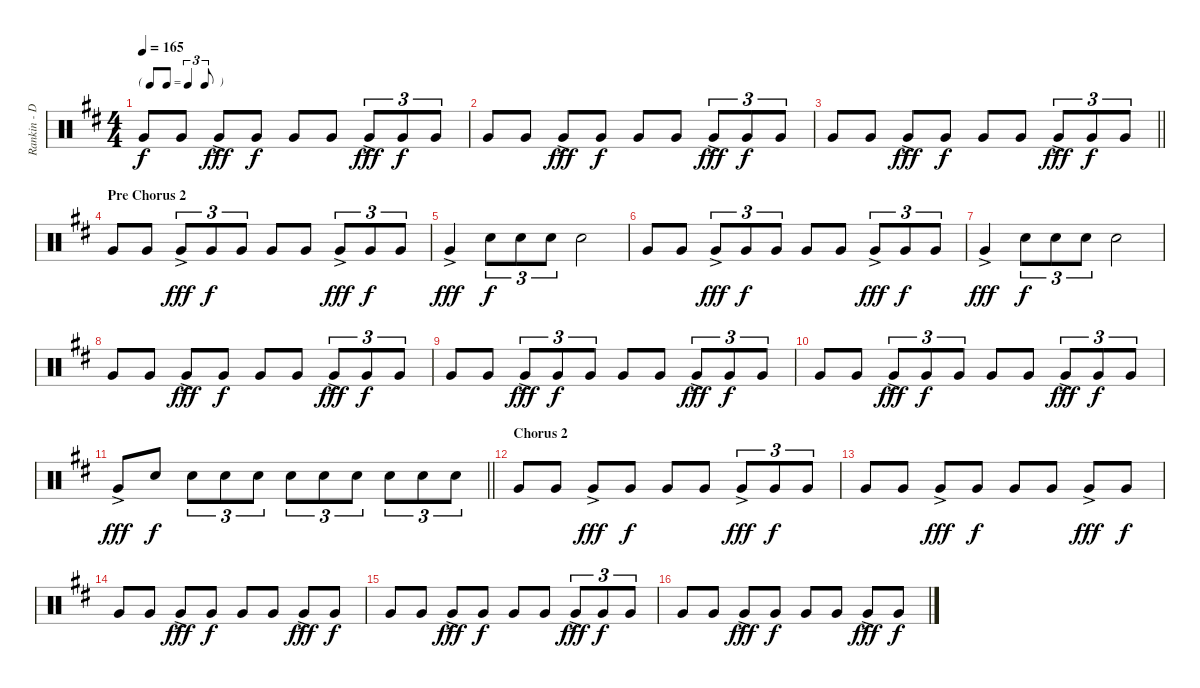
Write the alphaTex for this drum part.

\track ("Rankin - Drums" "Rankin - D") {instrument percussion}
\staff {score}
\articulation defaults
\ts (4 4)
\tf triplet8th
\tempo 165
\clef neutral
\ks d "Very Low Tom (hit)".8{dy f} "Very Low Tom (hit)".8 "Very Low Tom (hit)"{ac}.8{dy fff} "Very Low Tom (hit)".8{dy f} "Very Low Tom (hit)".8 "Very Low Tom (hit)".8 "Very Low Tom (hit)"{ac}.8{tu (3 2) dy fff} "Very Low Tom (hit)".8{tu (3 2) dy f} "Very Low Tom (hit)".8{tu (3 2)}
|
"Very Low Tom (hit)".8 "Very Low Tom (hit)".8 "Very Low Tom (hit)"{ac}.8{dy fff} "Very Low Tom (hit)".8{dy f} "Very Low Tom (hit)".8 "Very Low Tom (hit)".8 "Very Low Tom (hit)"{ac}.8{tu (3 2) dy fff} "Very Low Tom (hit)".8{tu (3 2) dy f} "Very Low Tom (hit)".8{tu (3 2)} |
\barLineRight lightlight "Very Low Tom (hit)".8 "Very Low Tom (hit)".8 "Very Low Tom (hit)"{ac}.8{dy fff} "Very Low Tom (hit)".8{dy f} "Very Low Tom (hit)".8 "Very Low Tom (hit)".8 "Very Low Tom (hit)"{ac}.8{tu (3 2) dy fff} "Very Low Tom (hit)".8{tu (3 2) dy f} "Very Low Tom (hit)".8{tu (3 2)}
|
\section ("" "Pre Chorus 2")
"Very Low Tom (hit)".8 "Very Low Tom (hit)".8 "Very Low Tom (hit)"{ac}.8{tu (3 2) dy fff} "Very Low Tom (hit)".8{tu (3 2) dy f} "Very Low Tom (hit)".8{tu (3 2)} "Very Low Tom (hit)".8 "Very Low Tom (hit)".8 "Very Low Tom (hit)"{ac}.8{tu (3 2) dy fff} "Very Low Tom (hit)".8{tu (3 2) dy f} "Very Low Tom (hit)".8{tu (3 2)} |
"Very Low Tom (hit)"{ac}.4{dy fff} "Electric Snare (hit)".8{tu (3 2) dy f} "Electric Snare (hit)".8{tu (3 2)} "Electric Snare (hit)".8{tu (3 2)} "Electric Snare (hit)".2 |
"Very Low Tom (hit)".8 "Very Low Tom (hit)".8 "Very Low Tom (hit)"{ac}.8{tu (3 2) dy fff} "Very Low Tom (hit)".8{tu (3 2) dy f} "Very Low Tom (hit)".8{tu (3 2)} "Very Low Tom (hit)".8 "Very Low Tom (hit)".8 "Very Low Tom (hit)"{ac}.8{tu (3 2) dy fff} "Very Low Tom (hit)".8{tu (3 2) dy f} "Very Low Tom (hit)".8{tu (3 2)} |
"Very Low Tom (hit)"{ac}.4{dy fff} "Electric Snare (hit)".8{tu (3 2) dy f} "Electric Snare (hit)".8{tu (3 2)} "Electric Snare (hit)".8{tu (3 2)} "Electric Snare (hit)".2 |
"Very Low Tom (hit)".8 "Very Low Tom (hit)".8 "Very Low Tom (hit)"{ac}.8{dy fff} "Very Low Tom (hit)".8{dy f} "Very Low Tom (hit)".8 "Very Low Tom (hit)".8 "Very Low Tom (hit)"{ac}.8{tu (3 2) dy fff} "Very Low Tom (hit)".8{tu (3 2) dy f} "Very Low Tom (hit)".8{tu (3 2)} |
"Very Low Tom (hit)".8 "Very Low Tom (hit)".8 "Very Low Tom (hit)"{ac}.8{tu (3 2) dy fff} "Very Low Tom (hit)".8{tu (3 2) dy f} "Very Low Tom (hit)".8{tu (3 2)} "Very Low Tom (hit)".8 "Very Low Tom (hit)".8 "Very Low Tom (hit)"{ac}.8{tu (3 2) dy fff} "Very Low Tom (hit)".8{tu (3 2) dy f} "Very Low Tom (hit)".8{tu (3 2)} |
"Very Low Tom (hit)".8 "Very Low Tom (hit)".8 "Very Low Tom (hit)"{ac}.8{tu (3 2) dy fff} "Very Low Tom (hit)".8{tu (3 2) dy f} "Very Low Tom (hit)".8{tu (3 2)} "Very Low Tom (hit)".8 "Very Low Tom (hit)".8 "Very Low Tom (hit)"{ac}.8{tu (3 2) dy fff} "Very Low Tom (hit)".8{tu (3 2) dy f} "Very Low Tom (hit)".8{tu (3 2)} |
\barLineRight lightlight "Very Low Tom (hit)"{ac}.8{dy fff} "Electric Snare (hit)".8{dy f} "Electric Snare (hit)".8{tu (3 2)} "Electric Snare (hit)".8{tu (3 2)} "Electric Snare (hit)".8{tu (3 2)} "Electric Snare (hit)".8{tu (3 2)} "Electric Snare (hit)".8{tu (3 2)} "Electric Snare (hit)".8{tu (3 2)} "Electric Snare (hit)".8{tu (3 2)} "Electric Snare (hit)".8{tu (3 2)} "Electric Snare (hit)".8{tu (3 2)}
|
\section ("" "Chorus 2")
"Very Low Tom (hit)".8 "Very Low Tom (hit)".8 "Very Low Tom (hit)"{ac}.8{dy fff} "Very Low Tom (hit)".8{dy f} "Very Low Tom (hit)".8 "Very Low Tom (hit)".8 "Very Low Tom (hit)"{ac}.8{tu (3 2) dy fff} "Very Low Tom (hit)".8{tu (3 2) dy f} "Very Low Tom (hit)".8{tu (3 2)} |
"Very Low Tom (hit)".8 "Very Low Tom (hit)".8 "Very Low Tom (hit)"{ac}.8{dy fff} "Very Low Tom (hit)".8{dy f} "Very Low Tom (hit)".8 "Very Low Tom (hit)".8 "Very Low Tom (hit)"{ac}.8{dy fff} "Very Low Tom (hit)".8{dy f} |
"Very Low Tom (hit)".8 "Very Low Tom (hit)".8 "Very Low Tom (hit)"{ac}.8{dy fff} "Very Low Tom (hit)".8{dy f} "Very Low Tom (hit)".8 "Very Low Tom (hit)".8 "Very Low Tom (hit)"{ac}.8{dy fff} "Very Low Tom (hit)".8{dy f} |
"Very Low Tom (hit)".8 "Very Low Tom (hit)".8 "Very Low Tom (hit)"{ac}.8{dy fff} "Very Low Tom (hit)".8{dy f} "Very Low Tom (hit)".8 "Very Low Tom (hit)".8 "Very Low Tom (hit)"{ac}.8{tu (3 2) dy fff} "Very Low Tom (hit)".8{tu (3 2) dy f} "Very Low Tom (hit)".8{tu (3 2)} |
"Very Low Tom (hit)".8 "Very Low Tom (hit)".8 "Very Low Tom (hit)"{ac}.8{dy fff} "Very Low Tom (hit)".8{dy f} "Very Low Tom (hit)".8 "Very Low Tom (hit)".8 "Very Low Tom (hit)"{ac}.8{dy fff} "Very Low Tom (hit)".8{dy f}
